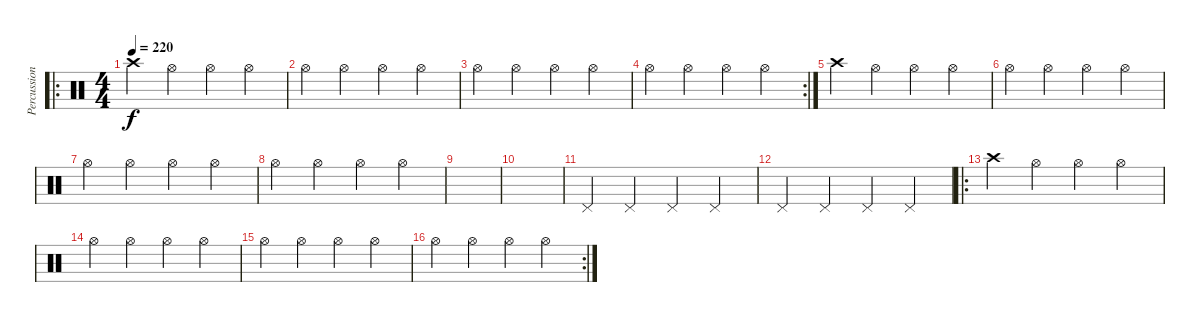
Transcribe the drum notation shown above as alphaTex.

\track ("Percussion" "Percussion") {instrument percussion}
\staff {score}
\articulation defaults
\ro
\ts (4 4)
\tempo 220
\clef neutral
\ks c "Crash high (hit)".4{dy f} "Hi-Hat (open)".4 "Hi-Hat (open)".4 "Hi-Hat (open)".4
|
"Hi-Hat (open)".4 "Hi-Hat (open)".4 "Hi-Hat (open)".4 "Hi-Hat (open)".4 |
"Hi-Hat (open)".4 "Hi-Hat (open)".4 "Hi-Hat (open)".4 "Hi-Hat (open)".4 |
\rc 2 "Hi-Hat (open)".4 "Hi-Hat (open)".4 "Hi-Hat (open)".4 "Hi-Hat (open)".4
|
"Crash high (hit)".4 "Hi-Hat (open)".4 "Hi-Hat (open)".4 "Hi-Hat (open)".4 |
"Hi-Hat (open)".4 "Hi-Hat (open)".4 "Hi-Hat (open)".4 "Hi-Hat (open)".4 |
"Hi-Hat (open)".4 "Hi-Hat (open)".4 "Hi-Hat (open)".4 "Hi-Hat (open)".4 |
"Hi-Hat (open)".4 "Hi-Hat (open)".4 "Hi-Hat (open)".4 "Hi-Hat (open)".4 |
|
|
"Pedal Hi-Hat (hit)".4 "Pedal Hi-Hat (hit)".4 "Pedal Hi-Hat (hit)".4 "Pedal Hi-Hat (hit)".4 |
"Pedal Hi-Hat (hit)".4 "Pedal Hi-Hat (hit)".4 "Pedal Hi-Hat (hit)".4 "Pedal Hi-Hat (hit)".4 |
\ro "Crash high (hit)".4 "Hi-Hat (open)".4 "Hi-Hat (open)".4 "Hi-Hat (open)".4
|
"Hi-Hat (open)".4 "Hi-Hat (open)".4 "Hi-Hat (open)".4 "Hi-Hat (open)".4 |
"Hi-Hat (open)".4 "Hi-Hat (open)".4 "Hi-Hat (open)".4 "Hi-Hat (open)".4 |
\rc 2 "Hi-Hat (open)".4 "Hi-Hat (open)".4 "Hi-Hat (open)".4 "Hi-Hat (open)".4
